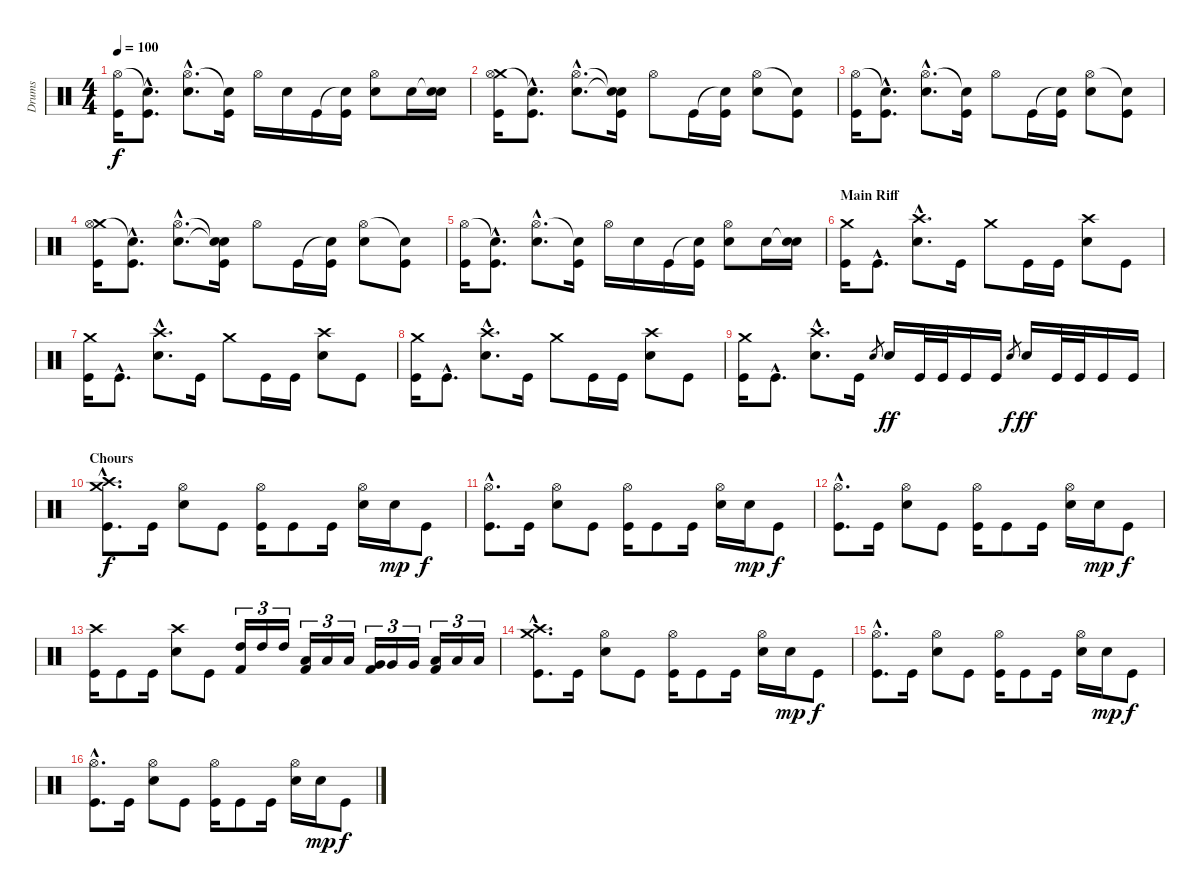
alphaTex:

\track ("Drums" "Drums") {instrument percussion}
\staff {score}
\articulation defaults
\ts (4 4)
\tempo 100
\clef neutral
\ks c
("Hi-Hat (open)" "Kick (hit)").16{dy f} ("Snare (hit)"{hac t} "Kick (hit)"{hac}).8{d} ("Hi-Hat (open)"{hac} "Electric Snare (hit)"{hac}).8{d} ("Snare (hit)"{t} "Kick (hit)").16 "Hi-Hat (open)".16 "Electric Snare (hit)".16 "Kick (hit)".16 ("Snare (hit)"{t} "Kick (hit)").16 ("Hi-Hat (open)" "Electric Snare (hit)").8 "Electric Snare (hit)".16 ("Snare (hit)"{t} "Electric Snare (hit)").16 |
("Crash medium (hit)" "Hi-Hat (open)" "Kick (hit)").16 ("Snare (hit)"{hac t} "Kick (hit)"{hac}).8{d} ("Hi-Hat (open)"{hac} "Electric Snare (hit)"{hac}).8{d} ("Snare (hit)"{t} "Snare (hit)"{t} "Kick (hit)").16 "Hi-Hat (open)".8 "Kick (hit)".16 ("Snare (hit)"{t} "Kick (hit)").16 ("Hi-Hat (open)" "Electric Snare (hit)").8 ("Snare (hit)"{t} "Kick (hit)").8 |
("Hi-Hat (open)" "Kick (hit)").16 ("Snare (hit)"{hac t} "Kick (hit)"{hac}).8{d} ("Hi-Hat (open)"{hac} "Electric Snare (hit)"{hac}).8{d} ("Snare (hit)"{t} "Kick (hit)").16 "Hi-Hat (open)".8 "Kick (hit)".16 ("Snare (hit)"{t} "Kick (hit)").16 ("Hi-Hat (open)" "Electric Snare (hit)").8 ("Snare (hit)"{t} "Kick (hit)").8 |
("Crash medium (hit)" "Hi-Hat (open)" "Kick (hit)").16 ("Snare (hit)"{hac t} "Kick (hit)"{hac}).8{d} ("Hi-Hat (open)"{hac} "Electric Snare (hit)"{hac}).8{d} ("Snare (hit)"{t} "Snare (hit)"{t} "Kick (hit)").16 "Hi-Hat (open)".8 "Kick (hit)".16 ("Snare (hit)"{t} "Kick (hit)").16 ("Hi-Hat (open)" "Electric Snare (hit)").8 ("Snare (hit)"{t} "Kick (hit)").8 |
("Hi-Hat (open)" "Kick (hit)").16 ("Snare (hit)"{hac t} "Kick (hit)"{hac}).8{d} ("Hi-Hat (open)"{hac} "Electric Snare (hit)"{hac}).8{d} ("Snare (hit)"{t} "Kick (hit)").16 "Hi-Hat (open)".16 "Electric Snare (hit)".16 "Kick (hit)".16 ("Snare (hit)"{t} "Kick (hit)").16 ("Hi-Hat (open)" "Electric Snare (hit)").8 "Electric Snare (hit)".16 ("Snare (hit)"{t} "Electric Snare (hit)").16 |
\section ("" "Main Riff")
("Crash medium (hit)" "Kick (hit)").16 "Kick (hit)"{hac}.8{d} ("Crash high (hit)"{hac} "Electric Snare (hit)"{hac}).8{d} "Kick (hit)".16 "Crash medium (hit)".8 "Kick (hit)".16 "Kick (hit)".16 ("Crash high (hit)" "Electric Snare (hit)").8 "Kick (hit)".8 |
("Crash medium (hit)" "Kick (hit)").16 "Kick (hit)"{hac}.8{d} ("Crash high (hit)"{hac} "Electric Snare (hit)"{hac}).8{d} "Kick (hit)".16 "Crash medium (hit)".8 "Kick (hit)".16 "Kick (hit)".16 ("Crash high (hit)" "Electric Snare (hit)").8 "Kick (hit)".8 |
("Crash medium (hit)" "Kick (hit)").16 "Kick (hit)"{hac}.8{d} ("Crash high (hit)"{hac} "Electric Snare (hit)"{hac}).8{d} "Kick (hit)".16 "Crash medium (hit)".8 "Kick (hit)".16 "Kick (hit)".16 ("Crash high (hit)" "Electric Snare (hit)").8 "Kick (hit)".8 |
("Crash medium (hit)" "Kick (hit)").16 "Kick (hit)"{hac}.8{d} ("Crash high (hit)"{hac} "Electric Snare (hit)"{hac}).8{d} "Kick (hit)".16 "Electric Snare (hit)".8{gr} "Electric Snare (hit)".16{dy ff} "Kick (hit)".32 "Kick (hit)".32 "Kick (hit)".16 "Kick (hit)".16 "Electric Snare (hit)".8{gr dy f} "Electric Snare (hit)".16{dy ff} "Kick (hit)".32 "Kick (hit)".32 "Kick (hit)".16 "Kick (hit)".16 |
\section ("" "Chours")
("Crash medium (hit)"{hac} "Crash high (hit)"{hac} "Kick (hit)"{hac}).8{d dy f} "Kick (hit)".16 ("Hi-Hat (open)" "Electric Snare (hit)").8 "Kick (hit)".8 ("Hi-Hat (open)" "Kick (hit)").16 "Kick (hit)".8 "Kick (hit)".16 ("Hi-Hat (open)" "Electric Snare (hit)").16 "Electric Snare (hit)".16{dy mp} "Kick (hit)".8{dy f} |
("Hi-Hat (open)"{hac} "Kick (hit)"{hac}).8{d} "Kick (hit)".16 ("Hi-Hat (open)" "Electric Snare (hit)").8 "Kick (hit)".8 ("Hi-Hat (open)" "Kick (hit)").16 "Kick (hit)".8 "Kick (hit)".16 ("Hi-Hat (open)" "Electric Snare (hit)").16 "Electric Snare (hit)".16{dy mp} "Kick (hit)".8{dy f} |
("Hi-Hat (open)"{hac} "Kick (hit)"{hac}).8{d} "Kick (hit)".16 ("Hi-Hat (open)" "Electric Snare (hit)").8 "Kick (hit)".8 ("Hi-Hat (open)" "Kick (hit)").16 "Kick (hit)".8 "Kick (hit)".16 ("Hi-Hat (open)" "Electric Snare (hit)").16 "Electric Snare (hit)".16{dy mp} "Kick (hit)".8{dy f} |
("Crash high (hit)" "Kick (hit)").16 "Kick (hit)".8 "Kick (hit)".16 ("Crash high (hit)" "Electric Snare (hit)").8 "Kick (hit)".8 ("High Tom (hit)" "Kick (hit) 2").16{tu (3 2)} "High Tom (hit)".16{tu (3 2)} "High Tom (hit)".16{tu (3 2)} ("Low Tom (hit)" "Kick (hit) 2").16{tu (3 2)} "Low Tom (hit)".16{tu (3 2)} "Low Tom (hit)".16{tu (3 2)} ("Very Low Tom (hit)" "Kick (hit) 2").16{tu (3 2)} "Very Low Tom (hit)".16{tu (3 2)} "Very Low Tom (hit)".16{tu (3 2)} ("Low Floor Tom (hit)" "Kick (hit) 2").16{tu (3 2)} "Low Floor Tom (hit)".16{tu (3 2)} "Low Floor Tom (hit)".16{tu (3 2)} |
("Crash medium (hit)"{hac} "Crash high (hit)"{hac} "Kick (hit)"{hac}).8{d} "Kick (hit)".16 ("Hi-Hat (open)" "Electric Snare (hit)").8 "Kick (hit)".8 ("Hi-Hat (open)" "Kick (hit)").16 "Kick (hit)".8 "Kick (hit)".16 ("Hi-Hat (open)" "Electric Snare (hit)").16 "Electric Snare (hit)".16{dy mp} "Kick (hit)".8{dy f} |
("Hi-Hat (open)"{hac} "Kick (hit)"{hac}).8{d} "Kick (hit)".16 ("Hi-Hat (open)" "Electric Snare (hit)").8 "Kick (hit)".8 ("Hi-Hat (open)" "Kick (hit)").16 "Kick (hit)".8 "Kick (hit)".16 ("Hi-Hat (open)" "Electric Snare (hit)").16 "Electric Snare (hit)".16{dy mp} "Kick (hit)".8{dy f} |
("Hi-Hat (open)"{hac} "Kick (hit)"{hac}).8{d} "Kick (hit)".16 ("Hi-Hat (open)" "Electric Snare (hit)").8 "Kick (hit)".8 ("Hi-Hat (open)" "Kick (hit)").16 "Kick (hit)".8 "Kick (hit)".16 ("Hi-Hat (open)" "Electric Snare (hit)").16 "Electric Snare (hit)".16{dy mp} "Kick (hit)".8{dy f}
